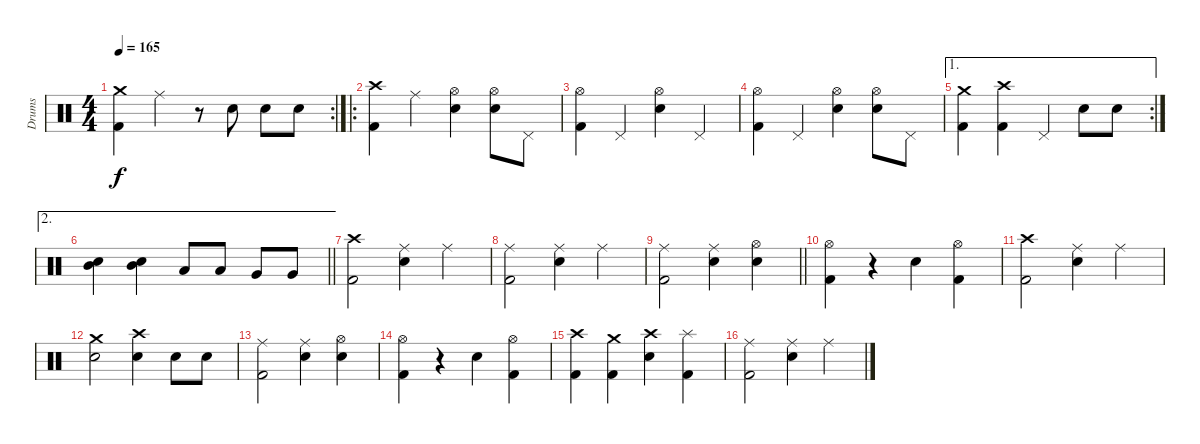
\track ("Drums" "Drums") {instrument percussion}
\staff {score}
\articulation defaults
\rc 2
\ts (4 4)
\tempo 165
\clef neutral
\ks c
("Kick (hit) 2" "Crash medium (hit)").4{dy f} "Ride (middle)".4 r.8 "Snare (hit) 2".8 "Snare (hit) 2".8 "Snare (hit) 2".8 |
\ro
("Kick (hit) 2" "Crash high (hit)").4 "Ride (middle)".4 ("Snare (hit) 2" "Hi-Hat (open)").4 ("Snare (hit) 2" "Hi-Hat (open)").8 "Pedal Hi-Hat (hit)".8 |
("Kick (hit) 2" "Hi-Hat (open)").4 "Pedal Hi-Hat (hit)".4 ("Snare (hit) 2" "Hi-Hat (open)").4 "Pedal Hi-Hat (hit)".4 |
("Kick (hit) 2" "Hi-Hat (open)").4 "Pedal Hi-Hat (hit)".4 ("Snare (hit) 2" "Hi-Hat (open)").4 ("Snare (hit) 2" "Hi-Hat (open)").8 "Pedal Hi-Hat (hit)".8 |
\ae 1
\rc 2
("Kick (hit) 2" "Crash medium (hit)").4 ("Kick (hit) 2" "Crash high (hit)").4 "Pedal Hi-Hat (hit)".4 "Snare (hit) 2".8 "Snare (hit) 2".8 |
\ae 2
\barLineRight lightlight
("Mid Tom (hit)" "Snare (hit) 2").4 ("Mid Tom (hit)" "Snare (hit) 2").4 "Low Tom (hit)".8 "Low Tom (hit)".8 "Very Low Tom (hit)".8 "Very Low Tom (hit)".8 |
("Kick (hit) 2" "Crash high (hit)").2 ("Snare (hit) 2" "Ride (middle)").4 "Ride (middle)".4 |
("Kick (hit) 2" "Ride (middle)").2 ("Snare (hit) 2" "Ride (middle)").4 "Ride (middle)".4 |
\barLineRight lightlight
("Kick (hit) 2" "Ride (middle)").2 ("Snare (hit) 2" "Ride (middle)").4 ("Snare (hit) 2" "Hi-Hat (open)").4 |
("Kick (hit) 2" "Hi-Hat (open)").4 r.4 "Snare (hit) 2".4 ("Kick (hit) 2" "Hi-Hat (open)").4 |
("Kick (hit) 2" "Crash high (hit)").2 ("Snare (hit) 2" "Ride (middle)").4 "Ride (middle)".4 |
("Snare (hit) 2" "Crash medium (hit)").2 ("Snare (hit) 2" "Crash high (hit)").4 "Snare (hit) 2".8 "Snare (hit) 2".8 |
("Kick (hit) 2" "Ride (middle)").2 ("Snare (hit) 2" "Ride (middle)").4 ("Snare (hit) 2" "Hi-Hat (open)").4 |
("Kick (hit) 2" "Hi-Hat (open)").4 r.4 "Snare (hit) 2".4 ("Kick (hit) 2" "Hi-Hat (open)").4 |
("Kick (hit) 2" "Crash high (hit)").4 ("Kick (hit) 2" "Crash medium (hit)").4 ("Snare (hit) 2" "Crash high (hit)").4 ("Kick (hit) 2" "Splash (hit)").4 |
("Kick (hit) 2" "Ride (middle)").2 ("Snare (hit) 2" "Ride (middle)").4 "Ride (middle)".4
